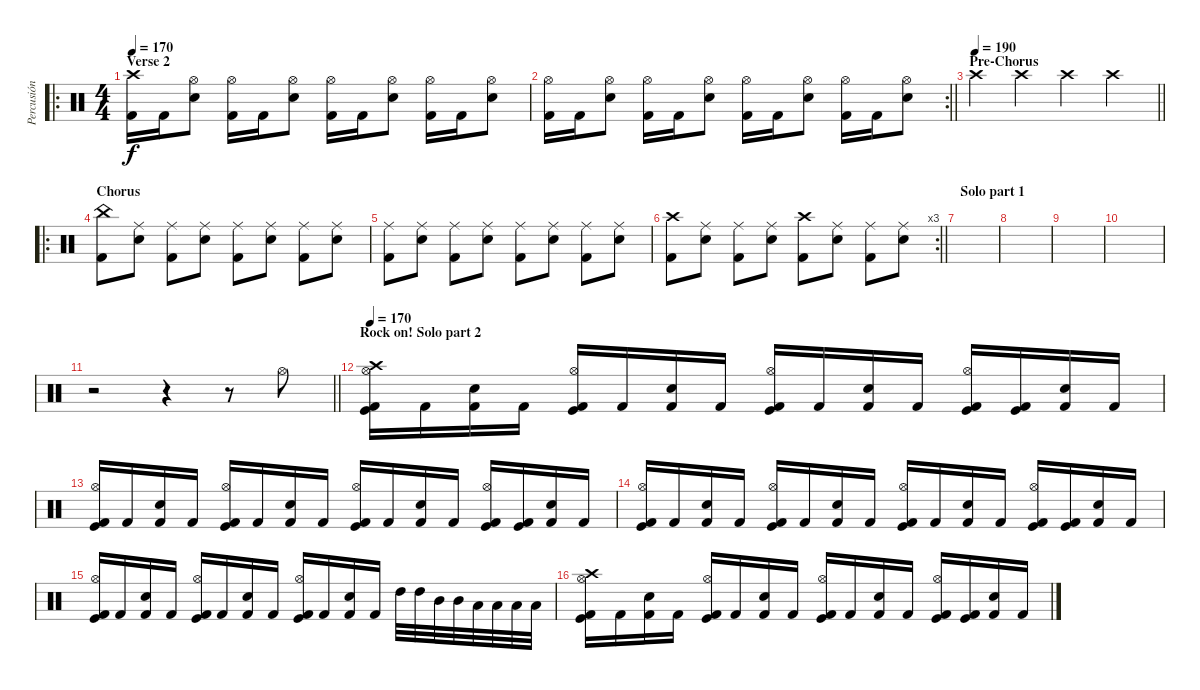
\track ("Percusión" "Percusión") {instrument percussion}
\staff {score}
\articulation defaults
\ro
\ts (4 4)
\section ("" "Verse 2")
\tempo 170
\clef neutral
\ks c
("Crash high (hit)" "Kick (hit) 2").16{dy f} "Kick (hit) 2".16 ("Hi-Hat (open)" "Snare (hit) 2").8 ("Hi-Hat (open)" "Kick (hit) 2").16 "Kick (hit) 2".16 ("Hi-Hat (open)" "Snare (hit) 2").8 ("Hi-Hat (open)" "Kick (hit) 2").16 "Kick (hit) 2".16 ("Hi-Hat (open)" "Snare (hit) 2").8 ("Hi-Hat (open)" "Kick (hit) 2").16 "Kick (hit) 2".16 ("Hi-Hat (open)" "Snare (hit) 2").8 |
\rc 2
\barLineRight lightlight
("Hi-Hat (open)" "Kick (hit) 2").16 "Kick (hit) 2".16 ("Hi-Hat (open)" "Snare (hit) 2").8 ("Hi-Hat (open)" "Kick (hit) 2").16 "Kick (hit) 2".16 ("Hi-Hat (open)" "Snare (hit) 2").8 ("Hi-Hat (open)" "Kick (hit) 2").16 "Kick (hit) 2".16 ("Hi-Hat (open)" "Snare (hit) 2").8 ("Hi-Hat (open)" "Kick (hit) 2").16 "Kick (hit) 2".16 ("Hi-Hat (open)" "Snare (hit) 2").8 |
\section ("" "Pre-Chorus")
\tempo 190
\barLineRight lightlight "Crash high (hit)".4 "Crash high (hit)".4 "Crash high (hit)".4 "Crash high (hit)".4
|
\ro
\section ("" "Chorus")
("Kick (hit) 2" "China (hit)").8 ("Snare (hit) 2" "Ride (middle)").8 ("Kick (hit) 2" "Ride (middle)").8 ("Snare (hit) 2" "Ride (middle)").8 ("Kick (hit) 2" "Ride (middle)").8 ("Snare (hit) 2" "Ride (middle)").8 ("Kick (hit) 2" "Ride (middle)").8 ("Snare (hit) 2" "Ride (middle)").8 |
("Kick (hit) 2" "Ride (middle)").8 ("Snare (hit) 2" "Ride (middle)").8 ("Kick (hit) 2" "Ride (middle)").8 ("Snare (hit) 2" "Ride (middle)").8 ("Kick (hit) 2" "Ride (middle)").8 ("Snare (hit) 2" "Ride (middle)").8 ("Kick (hit) 2" "Ride (middle)").8 ("Snare (hit) 2" "Ride (middle)").8 |
\rc 3
\barLineRight lightlight
("Kick (hit) 2" "Crash high (hit)").8 ("Snare (hit) 2" "Ride (middle)").8 ("Kick (hit) 2" "Ride (middle)").8 ("Snare (hit) 2" "Ride (middle)").8 ("Kick (hit) 2" "Crash high (hit)").8 ("Snare (hit) 2" "Ride (middle)").8 ("Kick (hit) 2" "Ride (middle)").8 ("Snare (hit) 2" "Ride (middle)").8 |
\section ("" "Solo part 1")
|
|
|
|
\barLineRight lightlight
r.2 r.4 r.8 "Hi-Hat (open)".8 |
\section ("" "Rock on! Solo part 2")
\tempo 170
("Crash high (hit)" "Hi-Hat (open)" "Kick (hit)" "Kick (hit) 2").16 "Kick (hit) 2".16 ("Snare (hit) 2" "Kick (hit) 2").16 "Kick (hit) 2".16 ("Hi-Hat (open)" "Kick (hit)" "Kick (hit) 2").16 "Kick (hit) 2".16 ("Snare (hit) 2" "Kick (hit) 2").16 "Kick (hit) 2".16 ("Hi-Hat (open)" "Kick (hit)" "Kick (hit) 2").16 "Kick (hit) 2".16 ("Snare (hit) 2" "Kick (hit) 2").16 "Kick (hit) 2".16 ("Hi-Hat (open)" "Kick (hit)" "Kick (hit) 2").16 ("Kick (hit)" "Kick (hit) 2").16 ("Snare (hit) 2" "Kick (hit) 2").16 "Kick (hit) 2".16 |
("Hi-Hat (open)" "Kick (hit)" "Kick (hit) 2").16 "Kick (hit) 2".16 ("Snare (hit) 2" "Kick (hit) 2").16 "Kick (hit) 2".16 ("Hi-Hat (open)" "Kick (hit)" "Kick (hit) 2").16 "Kick (hit) 2".16 ("Snare (hit) 2" "Kick (hit) 2").16 "Kick (hit) 2".16 ("Hi-Hat (open)" "Kick (hit)" "Kick (hit) 2").16 "Kick (hit) 2".16 ("Snare (hit) 2" "Kick (hit) 2").16 "Kick (hit) 2".16 ("Hi-Hat (open)" "Kick (hit)" "Kick (hit) 2").16 ("Kick (hit)" "Kick (hit) 2").16 ("Snare (hit) 2" "Kick (hit) 2").16 "Kick (hit) 2".16 |
("Hi-Hat (open)" "Kick (hit)" "Kick (hit) 2").16 "Kick (hit) 2".16 ("Snare (hit) 2" "Kick (hit) 2").16 "Kick (hit) 2".16 ("Hi-Hat (open)" "Kick (hit)" "Kick (hit) 2").16 "Kick (hit) 2".16 ("Snare (hit) 2" "Kick (hit) 2").16 "Kick (hit) 2".16 ("Hi-Hat (open)" "Kick (hit)" "Kick (hit) 2").16 "Kick (hit) 2".16 ("Snare (hit) 2" "Kick (hit) 2").16 "Kick (hit) 2".16 ("Hi-Hat (open)" "Kick (hit)" "Kick (hit) 2").16 ("Kick (hit)" "Kick (hit) 2").16 ("Snare (hit) 2" "Kick (hit) 2").16 "Kick (hit) 2".16 |
("Hi-Hat (open)" "Kick (hit)" "Kick (hit) 2").16 "Kick (hit) 2".16 ("Snare (hit) 2" "Kick (hit) 2").16 "Kick (hit) 2".16 ("Hi-Hat (open)" "Kick (hit)" "Kick (hit) 2").16 "Kick (hit) 2".16 ("Snare (hit) 2" "Kick (hit) 2").16 "Kick (hit) 2".16 ("Hi-Hat (open)" "Kick (hit)" "Kick (hit) 2").16 "Kick (hit) 2".16 ("Snare (hit) 2" "Kick (hit) 2").16 "Kick (hit) 2".16 "High Tom (hit)".32 "High Tom (hit)".32 "Mid Tom (hit)".32 "Mid Tom (hit)".32 "Low Tom (hit)".32 "Low Tom (hit)".32 "Low Tom (hit)".32 "Low Tom (hit)".32 |
("Crash high (hit)" "Hi-Hat (open)" "Kick (hit)" "Kick (hit) 2").16 "Kick (hit) 2".16 ("Snare (hit) 2" "Kick (hit) 2").16 "Kick (hit) 2".16 ("Hi-Hat (open)" "Kick (hit)" "Kick (hit) 2").16 "Kick (hit) 2".16 ("Snare (hit) 2" "Kick (hit) 2").16 "Kick (hit) 2".16 ("Hi-Hat (open)" "Kick (hit)" "Kick (hit) 2").16 "Kick (hit) 2".16 ("Snare (hit) 2" "Kick (hit) 2").16 "Kick (hit) 2".16 ("Hi-Hat (open)" "Kick (hit)" "Kick (hit) 2").16 ("Kick (hit)" "Kick (hit) 2").16 ("Snare (hit) 2" "Kick (hit) 2").16 "Kick (hit) 2".16
